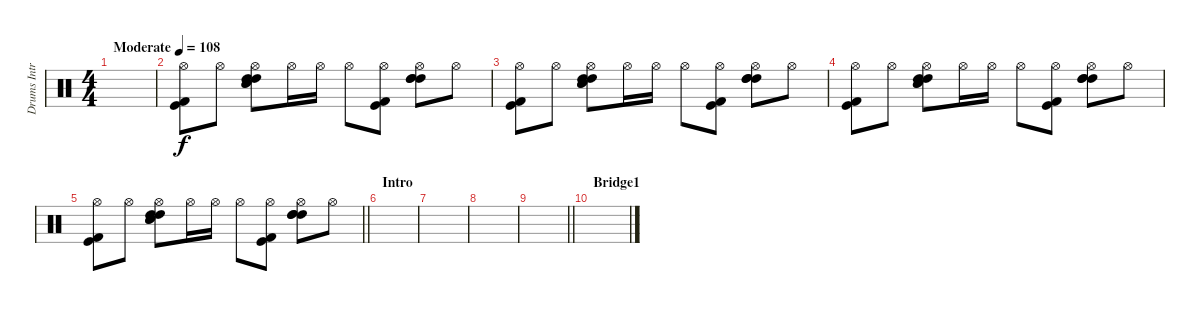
\track ("Drums Intro" "Drums Intr") {instrument percussion}
\staff {score}
\articulation defaults
\ts (4 4)
\tempo (108 "Moderate")
\clef neutral
\ks c
|
("Kick (hit)" "Kick (hit) 2" "Hi-Hat (open)").8 "Hi-Hat (open)".8 ("High Tom (hit)" "High Tom (hit)" "Snare (hit) 2" "Snare (hit) 2" "Hi-Hat (open)").8 "Hi-Hat (open)".16 "Hi-Hat (open)".16 "Hi-Hat (open)".8 ("Kick (hit) 2" "Kick (hit)" "Hi-Hat (open)").8 ("High Tom (hit)" "High Tom (hit)" "High Tom (hit)" "Hi-Hat (open)").8 "Hi-Hat (open)".8 |
("Kick (hit)" "Kick (hit) 2" "Hi-Hat (open)").8 "Hi-Hat (open)".8 ("High Tom (hit)" "High Tom (hit)" "Snare (hit) 2" "Snare (hit) 2" "Hi-Hat (open)").8 "Hi-Hat (open)".16 "Hi-Hat (open)".16 "Hi-Hat (open)".8 ("Kick (hit) 2" "Kick (hit)" "Hi-Hat (open)").8 ("High Tom (hit)" "High Tom (hit)" "High Tom (hit)" "Hi-Hat (open)").8 "Hi-Hat (open)".8 |
("Kick (hit)" "Kick (hit) 2" "Hi-Hat (open)").8 "Hi-Hat (open)".8 ("High Tom (hit)" "High Tom (hit)" "Snare (hit) 2" "Snare (hit) 2" "Hi-Hat (open)").8 "Hi-Hat (open)".16 "Hi-Hat (open)".16 "Hi-Hat (open)".8 ("Kick (hit) 2" "Kick (hit)" "Hi-Hat (open)").8 ("High Tom (hit)" "High Tom (hit)" "High Tom (hit)" "Hi-Hat (open)").8 "Hi-Hat (open)".8 |
\barLineRight lightlight
("Kick (hit)" "Kick (hit) 2" "Hi-Hat (open)").8 "Hi-Hat (open)".8 ("High Tom (hit)" "High Tom (hit)" "Snare (hit) 2" "Snare (hit) 2" "Hi-Hat (open)").8 "Hi-Hat (open)".16 "Hi-Hat (open)".16 "Hi-Hat (open)".8 ("Kick (hit) 2" "Kick (hit)" "Hi-Hat (open)").8 ("High Tom (hit)" "High Tom (hit)" "High Tom (hit)" "Hi-Hat (open)").8 "Hi-Hat (open)".8 |
\section ("" "Intro")
|
|
|
\barLineRight lightlight
|
\section ("" "Bridge1")
